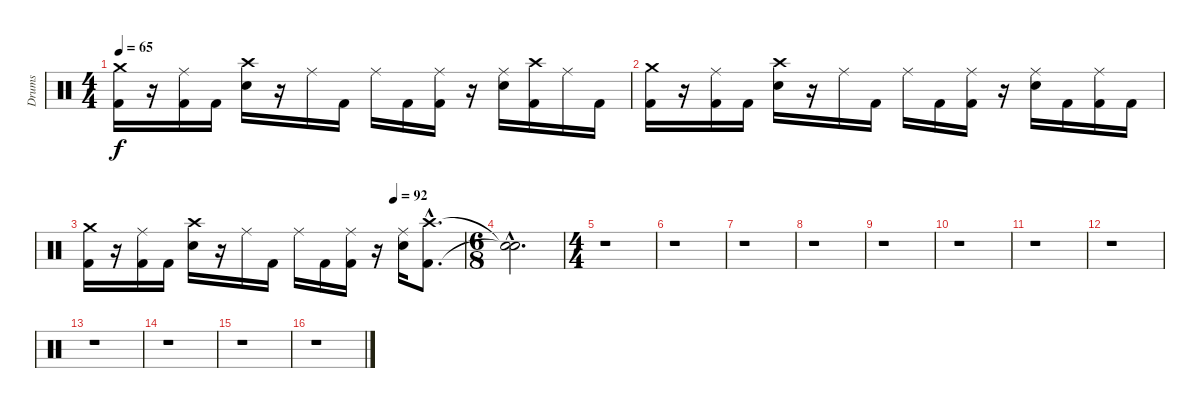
\track ("Drums" "Drums") {instrument percussion}
\staff {score}
\articulation defaults
\ts (4 4)
\tempo 65
\clef neutral
\ks c
("Crash medium (hit)" "Kick (hit) 2").16{dy f} r.16 ("Ride (middle)" "Kick (hit) 2").16 "Kick (hit) 2".16 ("Crash high (hit)" "Electric Snare (hit)").16 r.16 "Ride (middle)".16 "Kick (hit) 2".16 "Ride (middle)".16 "Kick (hit) 2".16 ("Ride (middle)" "Kick (hit) 2").16 r.16 ("Ride (middle)" "Electric Snare (hit)").16 ("Crash high (hit)" "Kick (hit) 2").16 "Ride (middle)".16 "Kick (hit) 2".16 |
("Crash medium (hit)" "Kick (hit) 2").16 r.16 ("Ride (middle)" "Kick (hit) 2").16 "Kick (hit) 2".16 ("Crash high (hit)" "Electric Snare (hit)").16 r.16 "Ride (middle)".16 "Kick (hit) 2".16 "Ride (middle)".16 "Kick (hit) 2".16 ("Ride (middle)" "Kick (hit) 2").16 r.16 ("Ride (middle)" "Electric Snare (hit)").16 "Kick (hit) 2".16 ("Ride (middle)" "Kick (hit) 2").16 "Kick (hit) 2".16 |
\tempo (92 0.8125)
("Crash medium (hit)" "Kick (hit) 2").16 r.16 ("Ride (middle)" "Kick (hit) 2").16 "Kick (hit) 2".16 ("Crash high (hit)" "Electric Snare (hit)").16 r.16 "Ride (middle)".16 "Kick (hit) 2".16 "Ride (middle)".16 "Kick (hit) 2".16 ("Ride (middle)" "Kick (hit) 2").16 r.16 ("Ride (middle)" "Electric Snare (hit)").16 ("Crash high (hit)"{hac} "Kick (hit) 2"{hac}).8{d} |
\ts (6 8)
("Snare (hit)"{hac t} "Snare (hit)"{hac t}).2{d} |
\ts (4 4)
\section ("" "")
r.1 |
r.1 |
\section ("" "")
r.1 |
r.1 |
r.1 |
r.1 |
r.1 |
r.1 |
r.1 |
r.1 |
\section ("" "")
r.1 |
r.1
